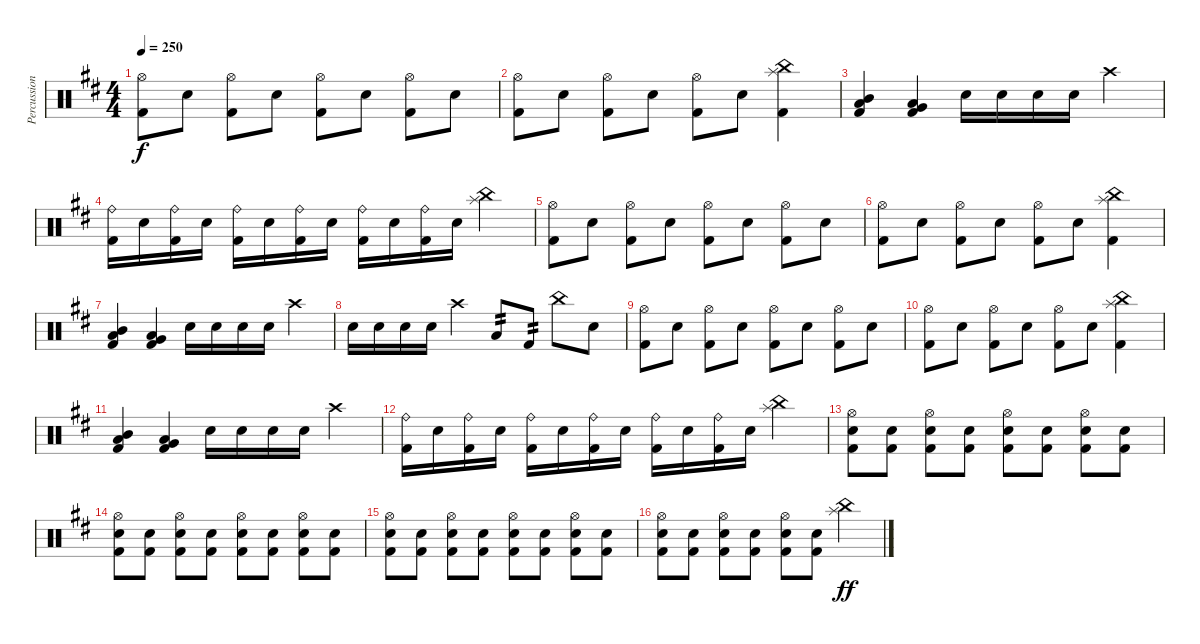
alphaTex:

\track ("Percussion" "Percussion") {instrument percussion}
\staff {score}
\articulation defaults
\ts (4 4)
\tempo 250
\clef neutral
\ks d
("Hi-Hat (open)" "Kick (hit) 2").8{dy f} "Electric Snare (hit)".8 ("Hi-Hat (open)" "Kick (hit) 2").8 "Electric Snare (hit)".8 ("Hi-Hat (open)" "Kick (hit) 2").8 "Electric Snare (hit)".8 ("Hi-Hat (open)" "Kick (hit) 2").8 "Electric Snare (hit)".8 |
("Hi-Hat (open)" "Kick (hit) 2").8 "Electric Snare (hit)".8 ("Hi-Hat (open)" "Kick (hit) 2").8 "Electric Snare (hit)".8 ("Hi-Hat (open)" "Kick (hit) 2").8 "Electric Snare (hit)".8 ("Splash (hit)" "China (hit)" "Kick (hit) 2").4 |
("Kick (hit) 2" "Mid Tom (hit)" "Low Tom (hit)").4 ("Kick (hit) 2" "Low Tom (hit)" "Very Low Tom (hit)").4 "Electric Snare (hit)".16 "Electric Snare (hit)".16 "Electric Snare (hit)".16 "Electric Snare (hit)".16 "Crash high (hit)".4 |
("Ride (bell)" "Kick (hit) 2").16 "Electric Snare (hit)".16 ("Ride (bell)" "Kick (hit) 2").16 "Electric Snare (hit)".16 ("Ride (bell)" "Kick (hit) 2").16 "Electric Snare (hit)".16 ("Ride (bell)" "Kick (hit) 2").16 "Electric Snare (hit)".16 ("Ride (bell)" "Kick (hit) 2").16 "Electric Snare (hit)".16 ("Ride (bell)" "Kick (hit) 2").16 "Electric Snare (hit)".16 ("Splash (hit)" "China (hit)").4 |
("Hi-Hat (open)" "Kick (hit) 2").8 "Electric Snare (hit)".8 ("Hi-Hat (open)" "Kick (hit) 2").8 "Electric Snare (hit)".8 ("Hi-Hat (open)" "Kick (hit) 2").8 "Electric Snare (hit)".8 ("Hi-Hat (open)" "Kick (hit) 2").8 "Electric Snare (hit)".8 |
("Hi-Hat (open)" "Kick (hit) 2").8 "Electric Snare (hit)".8 ("Hi-Hat (open)" "Kick (hit) 2").8 "Electric Snare (hit)".8 ("Hi-Hat (open)" "Kick (hit) 2").8 "Electric Snare (hit)".8 ("Splash (hit)" "China (hit)" "Kick (hit) 2").4 |
("Kick (hit) 2" "Mid Tom (hit)" "Low Tom (hit)").4 ("Kick (hit) 2" "Low Tom (hit)" "Very Low Tom (hit)").4 "Electric Snare (hit)".16 "Electric Snare (hit)".16 "Electric Snare (hit)".16 "Electric Snare (hit)".16 "Crash high (hit)".4 |
"Electric Snare (hit)".16 "Electric Snare (hit)".16 "Electric Snare (hit)".16 "Electric Snare (hit)".16 "Crash high (hit)".4 "Low Tom (hit)".8{tp 2} "Kick (hit) 2".8{tp 2} "China (hit)".8 "Electric Snare (hit)".8 |
("Hi-Hat (open)" "Kick (hit) 2").8 "Electric Snare (hit)".8 ("Hi-Hat (open)" "Kick (hit) 2").8 "Electric Snare (hit)".8 ("Hi-Hat (open)" "Kick (hit) 2").8 "Electric Snare (hit)".8 ("Hi-Hat (open)" "Kick (hit) 2").8 "Electric Snare (hit)".8 |
("Hi-Hat (open)" "Kick (hit) 2").8 "Electric Snare (hit)".8 ("Hi-Hat (open)" "Kick (hit) 2").8 "Electric Snare (hit)".8 ("Hi-Hat (open)" "Kick (hit) 2").8 "Electric Snare (hit)".8 ("Splash (hit)" "China (hit)" "Kick (hit) 2").4 |
("Kick (hit) 2" "Mid Tom (hit)" "Low Tom (hit)").4 ("Kick (hit) 2" "Low Tom (hit)" "Very Low Tom (hit)").4 "Electric Snare (hit)".16 "Electric Snare (hit)".16 "Electric Snare (hit)".16 "Electric Snare (hit)".16 "Crash high (hit)".4 |
("Ride (bell)" "Kick (hit) 2").16 "Electric Snare (hit)".16 ("Ride (bell)" "Kick (hit) 2").16 "Electric Snare (hit)".16 ("Ride (bell)" "Kick (hit) 2").16 "Electric Snare (hit)".16 ("Ride (bell)" "Kick (hit) 2").16 "Electric Snare (hit)".16 ("Ride (bell)" "Kick (hit) 2").16 "Electric Snare (hit)".16 ("Ride (bell)" "Kick (hit) 2").16 "Electric Snare (hit)".16 ("Splash (hit)" "China (hit)").4 |
("Kick (hit) 2" "Hi-Hat (open)" "Electric Snare (hit)").8 ("Kick (hit) 2" "Electric Snare (hit)").8 ("Kick (hit) 2" "Hi-Hat (open)" "Electric Snare (hit)").8 ("Kick (hit) 2" "Electric Snare (hit)").8 ("Kick (hit) 2" "Hi-Hat (open)" "Electric Snare (hit)").8 ("Kick (hit) 2" "Electric Snare (hit)").8 ("Kick (hit) 2" "Hi-Hat (open)" "Electric Snare (hit)").8 ("Kick (hit) 2" "Electric Snare (hit)").8 |
("Kick (hit) 2" "Hi-Hat (open)" "Electric Snare (hit)").8 ("Kick (hit) 2" "Electric Snare (hit)").8 ("Kick (hit) 2" "Hi-Hat (open)" "Electric Snare (hit)").8 ("Kick (hit) 2" "Electric Snare (hit)").8 ("Kick (hit) 2" "Hi-Hat (open)" "Electric Snare (hit)").8 ("Kick (hit) 2" "Electric Snare (hit)").8 ("Kick (hit) 2" "Hi-Hat (open)" "Electric Snare (hit)").8 ("Kick (hit) 2" "Electric Snare (hit)").8 |
("Kick (hit) 2" "Hi-Hat (open)" "Electric Snare (hit)").8 ("Kick (hit) 2" "Electric Snare (hit)").8 ("Kick (hit) 2" "Hi-Hat (open)" "Electric Snare (hit)").8 ("Kick (hit) 2" "Electric Snare (hit)").8 ("Kick (hit) 2" "Hi-Hat (open)" "Electric Snare (hit)").8 ("Kick (hit) 2" "Electric Snare (hit)").8 ("Kick (hit) 2" "Hi-Hat (open)" "Electric Snare (hit)").8 ("Kick (hit) 2" "Electric Snare (hit)").8 |
("Kick (hit) 2" "Hi-Hat (open)" "Electric Snare (hit)").8 ("Kick (hit) 2" "Electric Snare (hit)").8 ("Kick (hit) 2" "Hi-Hat (open)" "Electric Snare (hit)").8 ("Kick (hit) 2" "Electric Snare (hit)").8 ("Kick (hit) 2" "Hi-Hat (open)" "Electric Snare (hit)").8 ("Kick (hit) 2" "Electric Snare (hit)").8 ("Splash (hit)" "China (hit)").4{dy ff}
